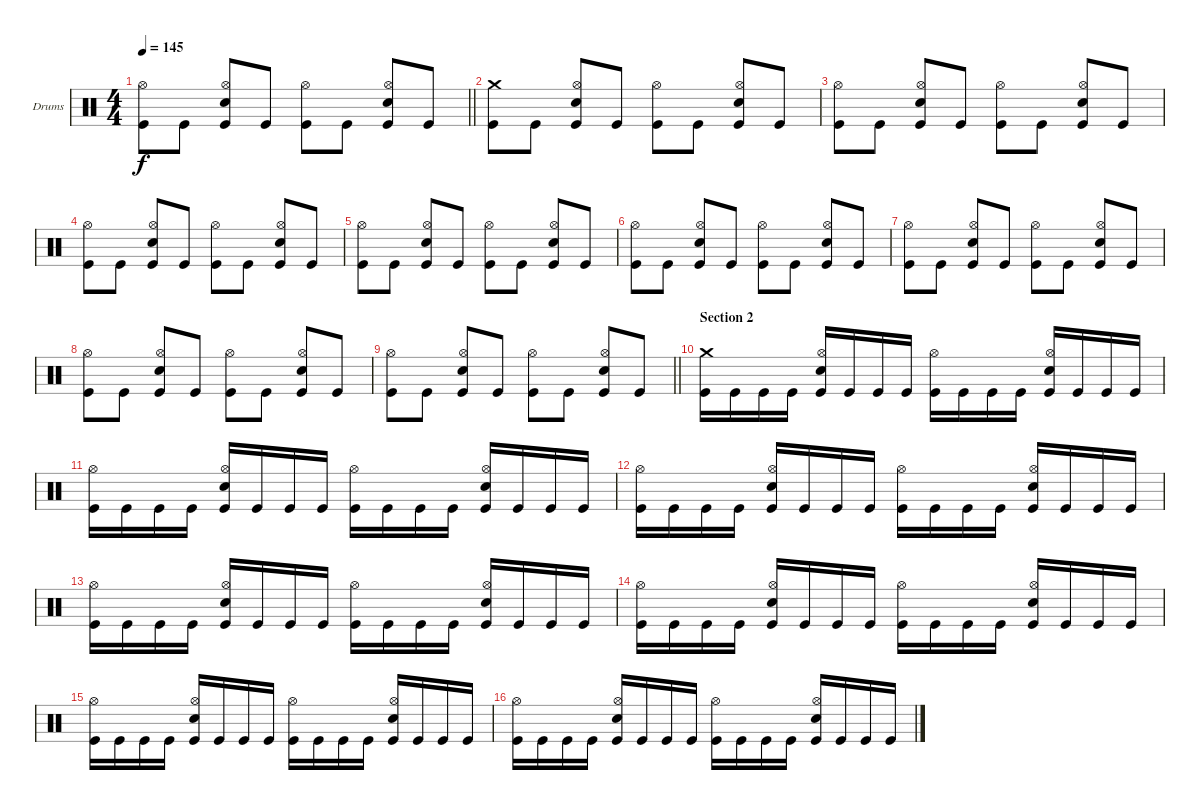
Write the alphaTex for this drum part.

\defaultSystemsLayout 4
\bracketExtendMode groupsimilarinstruments
\firstSystemTrackNameOrientation horizontal
\otherSystemsTrackNameOrientation horizontal
\track ("Drums" "Drums") {instrument percussion}
\staff {score}
\articulation defaults
\ts (4 4)
\tempo 145
\clef neutral
\barLineRight lightlight
\ks c
("Kick (hit)" "Hi-Hat (open)").8{dy f} "Kick (hit)".8 ("Snare (hit) 2" "Hi-Hat (open)" "Kick (hit)").8 "Kick (hit)".8 ("Kick (hit)" "Hi-Hat (open)").8 "Kick (hit)".8 ("Snare (hit) 2" "Hi-Hat (open)" "Kick (hit)").8 "Kick (hit)".8 |
("Kick (hit)" "Crash medium (hit)").8 "Kick (hit)".8 ("Snare (hit) 2" "Hi-Hat (open)" "Kick (hit)").8 "Kick (hit)".8 ("Kick (hit)" "Hi-Hat (open)").8 "Kick (hit)".8 ("Snare (hit) 2" "Hi-Hat (open)" "Kick (hit)").8 "Kick (hit)".8 |
("Kick (hit)" "Hi-Hat (open)").8 "Kick (hit)".8 ("Snare (hit) 2" "Hi-Hat (open)" "Kick (hit)").8 "Kick (hit)".8 ("Kick (hit)" "Hi-Hat (open)").8 "Kick (hit)".8 ("Snare (hit) 2" "Hi-Hat (open)" "Kick (hit)").8 "Kick (hit)".8 |
("Kick (hit)" "Hi-Hat (open)").8 "Kick (hit)".8 ("Snare (hit) 2" "Hi-Hat (open)" "Kick (hit)").8 "Kick (hit)".8 ("Kick (hit)" "Hi-Hat (open)").8 "Kick (hit)".8 ("Snare (hit) 2" "Hi-Hat (open)" "Kick (hit)").8 "Kick (hit)".8 |
("Kick (hit)" "Hi-Hat (open)").8 "Kick (hit)".8 ("Snare (hit) 2" "Hi-Hat (open)" "Kick (hit)").8 "Kick (hit)".8 ("Kick (hit)" "Hi-Hat (open)").8 "Kick (hit)".8 ("Snare (hit) 2" "Hi-Hat (open)" "Kick (hit)").8 "Kick (hit)".8 |
("Kick (hit)" "Hi-Hat (open)").8 "Kick (hit)".8 ("Snare (hit) 2" "Hi-Hat (open)" "Kick (hit)").8 "Kick (hit)".8 ("Kick (hit)" "Hi-Hat (open)").8 "Kick (hit)".8 ("Snare (hit) 2" "Hi-Hat (open)" "Kick (hit)").8 "Kick (hit)".8 |
("Kick (hit)" "Hi-Hat (open)").8 "Kick (hit)".8 ("Snare (hit) 2" "Hi-Hat (open)" "Kick (hit)").8 "Kick (hit)".8 ("Kick (hit)" "Hi-Hat (open)").8 "Kick (hit)".8 ("Snare (hit) 2" "Hi-Hat (open)" "Kick (hit)").8 "Kick (hit)".8 |
("Kick (hit)" "Hi-Hat (open)").8 "Kick (hit)".8 ("Snare (hit) 2" "Hi-Hat (open)" "Kick (hit)").8 "Kick (hit)".8 ("Kick (hit)" "Hi-Hat (open)").8 "Kick (hit)".8 ("Snare (hit) 2" "Hi-Hat (open)" "Kick (hit)").8 "Kick (hit)".8 |
\barLineRight lightlight
("Kick (hit)" "Hi-Hat (open)").8 "Kick (hit)".8 ("Snare (hit) 2" "Hi-Hat (open)" "Kick (hit)").8 "Kick (hit)".8 ("Kick (hit)" "Hi-Hat (open)").8 "Kick (hit)".8 ("Snare (hit) 2" "Hi-Hat (open)" "Kick (hit)").8 "Kick (hit)".8 |
\section ("" "Section 2")
("Kick (hit)" "Crash medium (hit)").16 "Kick (hit)".16 "Kick (hit)".16 "Kick (hit)".16 ("Snare (hit) 2" "Hi-Hat (open)" "Kick (hit)").16 "Kick (hit)".16 "Kick (hit)".16 "Kick (hit)".16 ("Kick (hit)" "Hi-Hat (open)").16 "Kick (hit)".16 "Kick (hit)".16 "Kick (hit)".16 ("Snare (hit) 2" "Hi-Hat (open)" "Kick (hit)").16 "Kick (hit)".16 "Kick (hit)".16 "Kick (hit)".16 |
("Kick (hit)" "Hi-Hat (open)").16 "Kick (hit)".16 "Kick (hit)".16 "Kick (hit)".16 ("Snare (hit) 2" "Hi-Hat (open)" "Kick (hit)").16 "Kick (hit)".16 "Kick (hit)".16 "Kick (hit)".16 ("Kick (hit)" "Hi-Hat (open)").16 "Kick (hit)".16 "Kick (hit)".16 "Kick (hit)".16 ("Snare (hit) 2" "Hi-Hat (open)" "Kick (hit)").16 "Kick (hit)".16 "Kick (hit)".16 "Kick (hit)".16 |
("Kick (hit)" "Hi-Hat (open)").16 "Kick (hit)".16 "Kick (hit)".16 "Kick (hit)".16 ("Snare (hit) 2" "Hi-Hat (open)" "Kick (hit)").16 "Kick (hit)".16 "Kick (hit)".16 "Kick (hit)".16 ("Kick (hit)" "Hi-Hat (open)").16 "Kick (hit)".16 "Kick (hit)".16 "Kick (hit)".16 ("Snare (hit) 2" "Hi-Hat (open)" "Kick (hit)").16 "Kick (hit)".16 "Kick (hit)".16 "Kick (hit)".16 |
("Kick (hit)" "Hi-Hat (open)").16 "Kick (hit)".16 "Kick (hit)".16 "Kick (hit)".16 ("Snare (hit) 2" "Hi-Hat (open)" "Kick (hit)").16 "Kick (hit)".16 "Kick (hit)".16 "Kick (hit)".16 ("Kick (hit)" "Hi-Hat (open)").16 "Kick (hit)".16 "Kick (hit)".16 "Kick (hit)".16 ("Snare (hit) 2" "Hi-Hat (open)" "Kick (hit)").16 "Kick (hit)".16 "Kick (hit)".16 "Kick (hit)".16 |
("Kick (hit)" "Hi-Hat (open)").16 "Kick (hit)".16 "Kick (hit)".16 "Kick (hit)".16 ("Snare (hit) 2" "Hi-Hat (open)" "Kick (hit)").16 "Kick (hit)".16 "Kick (hit)".16 "Kick (hit)".16 ("Kick (hit)" "Hi-Hat (open)").16 "Kick (hit)".16 "Kick (hit)".16 "Kick (hit)".16 ("Snare (hit) 2" "Hi-Hat (open)" "Kick (hit)").16 "Kick (hit)".16 "Kick (hit)".16 "Kick (hit)".16 |
("Kick (hit)" "Hi-Hat (open)").16 "Kick (hit)".16 "Kick (hit)".16 "Kick (hit)".16 ("Snare (hit) 2" "Hi-Hat (open)" "Kick (hit)").16 "Kick (hit)".16 "Kick (hit)".16 "Kick (hit)".16 ("Kick (hit)" "Hi-Hat (open)").16 "Kick (hit)".16 "Kick (hit)".16 "Kick (hit)".16 ("Snare (hit) 2" "Hi-Hat (open)" "Kick (hit)").16 "Kick (hit)".16 "Kick (hit)".16 "Kick (hit)".16 |
("Kick (hit)" "Hi-Hat (open)").16 "Kick (hit)".16 "Kick (hit)".16 "Kick (hit)".16 ("Snare (hit) 2" "Hi-Hat (open)" "Kick (hit)").16 "Kick (hit)".16 "Kick (hit)".16 "Kick (hit)".16 ("Kick (hit)" "Hi-Hat (open)").16 "Kick (hit)".16 "Kick (hit)".16 "Kick (hit)".16 ("Snare (hit) 2" "Hi-Hat (open)" "Kick (hit)").16 "Kick (hit)".16 "Kick (hit)".16 "Kick (hit)".16
